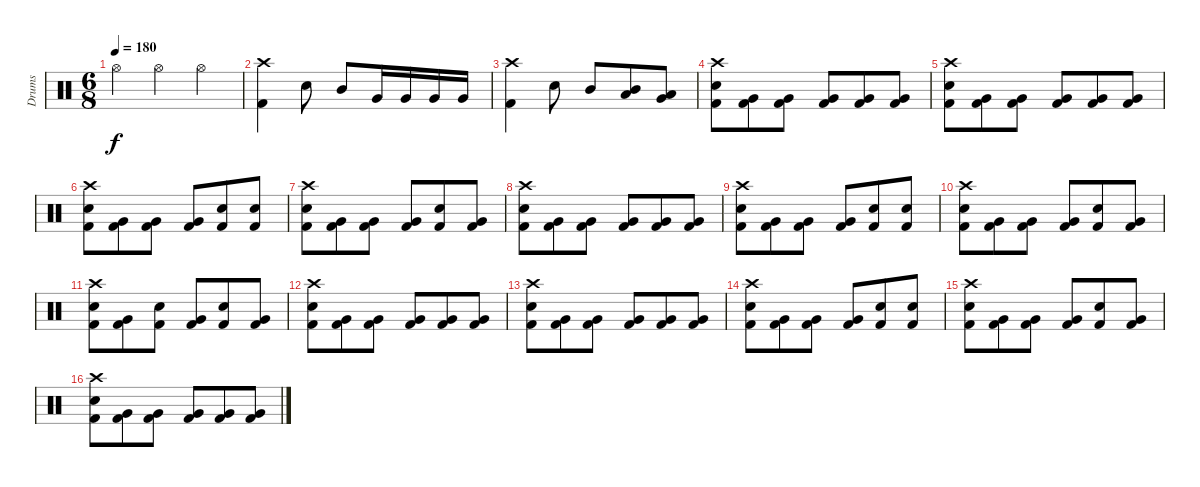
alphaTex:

\track ("Drums" "Drums") {instrument percussion}
\staff {score}
\articulation defaults
\ts (6 8)
\tempo 180
\clef neutral
\ks c "Hi-Hat (open)".4{dy f} "Hi-Hat (open)".4 "Hi-Hat (open)".4
|
("Crash high (hit)" "Kick (hit) 2").4 "Snare (hit) 2".8 "Mid Tom (hit)".8 "Very Low Tom (hit)".16 "Very Low Tom (hit)".16 "Very Low Tom (hit)".16 "Very Low Tom (hit)".16 |
("Crash high (hit)" "Kick (hit) 2").4 "Snare (hit) 2".8 "Mid Tom (hit)".8 ("Mid Tom (hit)" "Low Tom (hit)").8 ("Low Tom (hit)" "Very Low Tom (hit)").8 |
("Crash high (hit)" "Snare (hit) 2" "Kick (hit) 2").8 ("Very Low Tom (hit)" "Kick (hit) 2").8 ("Very Low Tom (hit)" "Kick (hit) 2").8 ("Very Low Tom (hit)" "Kick (hit) 2").8 ("Very Low Tom (hit)" "Kick (hit) 2").8 ("Very Low Tom (hit)" "Kick (hit) 2").8 |
("Crash high (hit)" "Snare (hit) 2" "Kick (hit) 2").8 ("Very Low Tom (hit)" "Kick (hit) 2").8 ("Very Low Tom (hit)" "Kick (hit) 2").8 ("Very Low Tom (hit)" "Kick (hit) 2").8 ("Very Low Tom (hit)" "Kick (hit) 2").8 ("Very Low Tom (hit)" "Kick (hit) 2").8 |
("Crash high (hit)" "Snare (hit) 2" "Kick (hit) 2").8 ("Very Low Tom (hit)" "Kick (hit) 2").8 ("Very Low Tom (hit)" "Kick (hit) 2").8 ("Very Low Tom (hit)" "Kick (hit) 2").8 ("Snare (hit) 2" "Kick (hit) 2").8 ("Snare (hit) 2" "Kick (hit) 2").8 |
("Crash high (hit)" "Snare (hit) 2" "Kick (hit) 2").8 ("Very Low Tom (hit)" "Kick (hit) 2").8 ("Very Low Tom (hit)" "Kick (hit) 2").8 ("Very Low Tom (hit)" "Kick (hit) 2").8 ("Snare (hit) 2" "Kick (hit) 2").8 ("Very Low Tom (hit)" "Kick (hit) 2").8 |
("Crash high (hit)" "Snare (hit) 2" "Kick (hit) 2").8 ("Very Low Tom (hit)" "Kick (hit) 2").8 ("Very Low Tom (hit)" "Kick (hit) 2").8 ("Very Low Tom (hit)" "Kick (hit) 2").8 ("Very Low Tom (hit)" "Kick (hit) 2").8 ("Very Low Tom (hit)" "Kick (hit) 2").8 |
("Crash high (hit)" "Snare (hit) 2" "Kick (hit) 2").8 ("Very Low Tom (hit)" "Kick (hit) 2").8 ("Very Low Tom (hit)" "Kick (hit) 2").8 ("Very Low Tom (hit)" "Kick (hit) 2").8 ("Snare (hit) 2" "Kick (hit) 2").8 ("Snare (hit) 2" "Kick (hit) 2").8 |
("Crash high (hit)" "Snare (hit) 2" "Kick (hit) 2").8 ("Very Low Tom (hit)" "Kick (hit) 2").8 ("Very Low Tom (hit)" "Kick (hit) 2").8 ("Very Low Tom (hit)" "Kick (hit) 2").8 ("Snare (hit) 2" "Kick (hit) 2").8 ("Very Low Tom (hit)" "Kick (hit) 2").8 |
("Crash high (hit)" "Snare (hit) 2" "Kick (hit) 2").8 ("Very Low Tom (hit)" "Kick (hit) 2").8 ("Snare (hit) 2" "Kick (hit) 2").8 ("Very Low Tom (hit)" "Kick (hit) 2").8 ("Snare (hit) 2" "Kick (hit) 2").8 ("Very Low Tom (hit)" "Kick (hit) 2").8 |
("Crash high (hit)" "Snare (hit) 2" "Kick (hit) 2").8 ("Very Low Tom (hit)" "Kick (hit) 2").8 ("Very Low Tom (hit)" "Kick (hit) 2").8 ("Very Low Tom (hit)" "Kick (hit) 2").8 ("Very Low Tom (hit)" "Kick (hit) 2").8 ("Very Low Tom (hit)" "Kick (hit) 2").8 |
("Crash high (hit)" "Snare (hit) 2" "Kick (hit) 2").8 ("Very Low Tom (hit)" "Kick (hit) 2").8 ("Very Low Tom (hit)" "Kick (hit) 2").8 ("Very Low Tom (hit)" "Kick (hit) 2").8 ("Very Low Tom (hit)" "Kick (hit) 2").8 ("Very Low Tom (hit)" "Kick (hit) 2").8 |
("Crash high (hit)" "Snare (hit) 2" "Kick (hit) 2").8 ("Very Low Tom (hit)" "Kick (hit) 2").8 ("Very Low Tom (hit)" "Kick (hit) 2").8 ("Very Low Tom (hit)" "Kick (hit) 2").8 ("Snare (hit) 2" "Kick (hit) 2").8 ("Snare (hit) 2" "Kick (hit) 2").8 |
("Crash high (hit)" "Snare (hit) 2" "Kick (hit) 2").8 ("Very Low Tom (hit)" "Kick (hit) 2").8 ("Very Low Tom (hit)" "Kick (hit) 2").8 ("Very Low Tom (hit)" "Kick (hit) 2").8 ("Snare (hit) 2" "Kick (hit) 2").8 ("Very Low Tom (hit)" "Kick (hit) 2").8 |
("Crash high (hit)" "Snare (hit) 2" "Kick (hit) 2").8 ("Very Low Tom (hit)" "Kick (hit) 2").8 ("Very Low Tom (hit)" "Kick (hit) 2").8 ("Very Low Tom (hit)" "Kick (hit) 2").8 ("Very Low Tom (hit)" "Kick (hit) 2").8 ("Very Low Tom (hit)" "Kick (hit) 2").8
